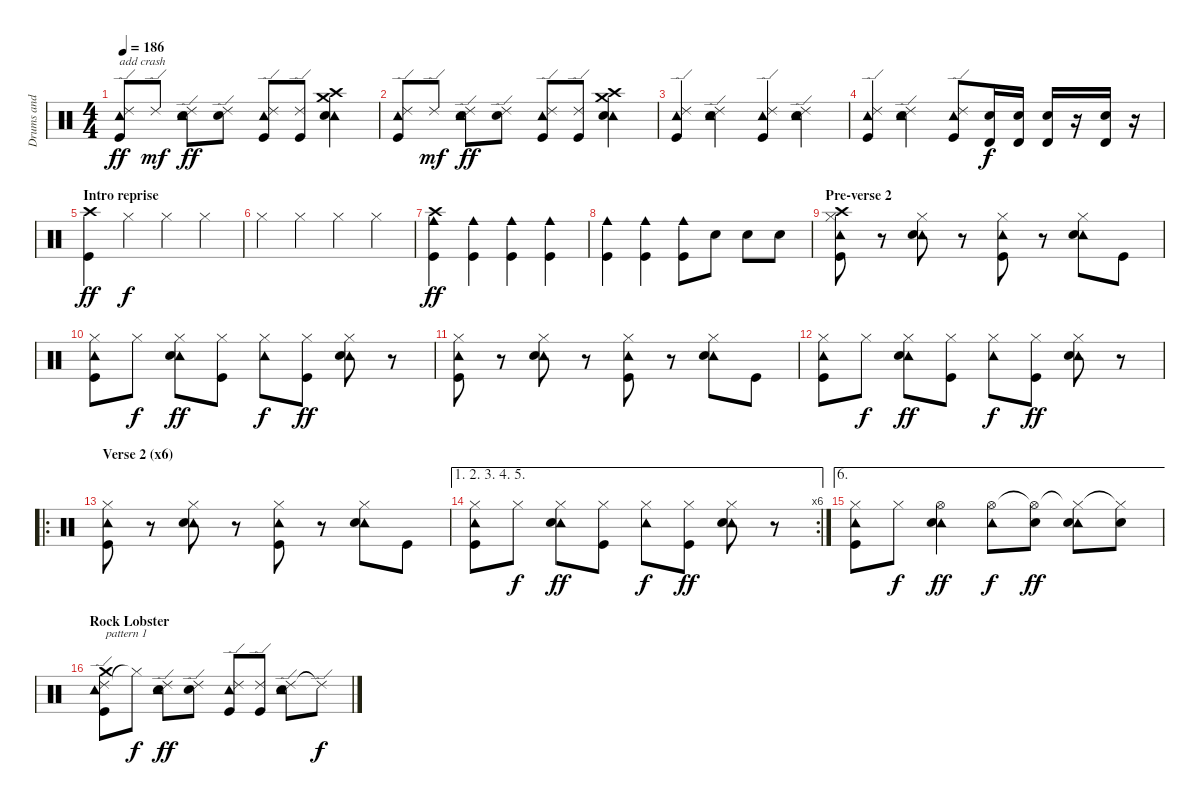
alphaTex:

\track ("Drums and Percs" "Drums and ") {instrument percussion}
\staff {score}
\articulation defaults
\ts (4 4)
\tempo 186
\clef neutral
\ks c
("Ride (edge) 2" "Tambourine (hit)" "Kick (hit)").8{txt "add crash" dy ff} "Ride (edge) 2".8{dy mf} ("Ride (edge) 2" "Tambourine (hit)" "Electric Snare (hit)").8{dy ff} ("Ride (edge) 2" "Electric Snare (hit)").8 ("Ride (edge) 2" "Tambourine (hit)" "Kick (hit)").8 ("Ride (edge) 2" "Kick (hit)").8 ("Crash high (hit)" "Tambourine (hit)" "Crash medium (hit)" "Electric Snare (hit)").4 |
("Ride (edge) 2" "Tambourine (hit)" "Kick (hit)").8 "Ride (edge) 2".8{dy mf} ("Ride (edge) 2" "Tambourine (hit)" "Electric Snare (hit)").8{dy ff} ("Ride (edge) 2" "Electric Snare (hit)").8 ("Ride (edge) 2" "Tambourine (hit)" "Kick (hit)").8 ("Ride (edge) 2" "Kick (hit)").8 ("Crash high (hit)" "Tambourine (hit)" "Crash medium (hit)" "Electric Snare (hit)").4 |
("Ride (edge) 2" "Tambourine (hit)" "Kick (hit)").4 ("Ride (edge) 2" "Tambourine (hit)" "Electric Snare (hit)").4 ("Ride (edge) 2" "Tambourine (hit)" "Kick (hit)").4 ("Ride (edge) 2" "Tambourine (hit)" "Electric Snare (hit)").4 |
("Ride (edge) 2" "Tambourine (hit)" "Kick (hit)").4 ("Ride (edge) 2" "Tambourine (hit)" "Electric Snare (hit)").4 ("Ride (edge) 2" "Tambourine (hit)" "Kick (hit)").8 ("Timbale high (hit)" "Electric Snare (hit)").16{dy f} ("Timbale high (hit)" "Electric Snare (hit)").16 ("Timbale high (hit)" "Electric Snare (hit)").16 r.16 ("Timbale high (hit)" "Electric Snare (hit)").16 r.16 |
\section ("" "Intro reprise")
("Crash high (hit)" "Kick (hit)").4{dy ff} "Hi-Hat (closed)".4{dy f} "Hi-Hat (closed)".4 "Hi-Hat (closed)".4 |
"Hi-Hat (closed)".4 "Hi-Hat (closed)".4 "Hi-Hat (closed)".4 "Hi-Hat (closed)".4 |
("Cowbell medium (hit)" "Crash high (hit)" "Kick (hit)").4{dy ff} ("Cowbell medium (hit)" "Kick (hit)").4 ("Cowbell medium (hit)" "Kick (hit)").4 ("Cowbell medium (hit)" "Kick (hit)").4 |
("Cowbell medium (hit)" "Kick (hit)").4 ("Cowbell medium (hit)" "Kick (hit)").4 ("Cowbell medium (hit)" "Kick (hit)").8 "Electric Snare (hit)".8 "Electric Snare (hit)".8 "Electric Snare (hit)".8 |
\section ("" "Pre-verse 2")
("Hi-Hat (closed)" "Tambourine (hit)" "Crash high (hit)" "Kick (hit)").8 r.8 ("Hi-Hat (closed)" "Tambourine (hit)" "Electric Snare (hit)").8 r.8 ("Hi-Hat (closed)" "Tambourine (hit)" "Kick (hit)").8 r.8 ("Hi-Hat (closed)" "Tambourine (hit)" "Electric Snare (hit)").8 "Kick (hit)".8 |
("Hi-Hat (closed)" "Tambourine (hit)" "Kick (hit)").8 "Hi-Hat (closed)".8{dy f} ("Hi-Hat (closed)" "Tambourine (hit)" "Electric Snare (hit)").8{dy ff} ("Hi-Hat (closed)" "Kick (hit)").8 ("Hi-Hat (closed)" "Tambourine (hit)").8{dy f} ("Hi-Hat (closed)" "Kick (hit)").8{dy ff} ("Hi-Hat (closed)" "Tambourine (hit)" "Electric Snare (hit)").8 r.8 |
("Hi-Hat (closed)" "Tambourine (hit)" "Kick (hit)").8 r.8 ("Hi-Hat (closed)" "Tambourine (hit)" "Electric Snare (hit)").8 r.8 ("Hi-Hat (closed)" "Tambourine (hit)" "Kick (hit)").8 r.8 ("Hi-Hat (closed)" "Tambourine (hit)" "Electric Snare (hit)").8 "Kick (hit)".8 |
("Hi-Hat (closed)" "Tambourine (hit)" "Kick (hit)").8 "Hi-Hat (closed)".8{dy f} ("Hi-Hat (closed)" "Tambourine (hit)" "Electric Snare (hit)").8{dy ff} ("Hi-Hat (closed)" "Kick (hit)").8 ("Hi-Hat (closed)" "Tambourine (hit)").8{dy f} ("Hi-Hat (closed)" "Kick (hit)").8{dy ff} ("Hi-Hat (closed)" "Tambourine (hit)" "Electric Snare (hit)").8 r.8 |
\ro
\section ("" "Verse 2 (x6)")
("Hi-Hat (closed)" "Tambourine (hit)" "Kick (hit)").8 r.8 ("Hi-Hat (closed)" "Tambourine (hit)" "Electric Snare (hit)").8 r.8 ("Hi-Hat (closed)" "Tambourine (hit)" "Kick (hit)").8 r.8 ("Hi-Hat (closed)" "Tambourine (hit)" "Electric Snare (hit)").8 "Kick (hit)".8 |
\ae (1 2 3 4 5)
\rc 6
("Hi-Hat (closed)" "Tambourine (hit)" "Kick (hit)").8 "Hi-Hat (closed)".8{dy f} ("Hi-Hat (closed)" "Tambourine (hit)" "Electric Snare (hit)").8{dy ff} ("Hi-Hat (closed)" "Kick (hit)").8 ("Hi-Hat (closed)" "Tambourine (hit)").8{dy f} ("Hi-Hat (closed)" "Kick (hit)").8{dy ff} ("Hi-Hat (closed)" "Tambourine (hit)" "Electric Snare (hit)").8 r.8 |
\ae 6
("Hi-Hat (closed)" "Tambourine (hit)" "Kick (hit)").8 "Hi-Hat (closed)".8{dy f} ("Hi-Hat (open)" "Tambourine (hit)" "Electric Snare (hit)").4{dy ff} ("Hi-Hat (open)" "Tambourine (hit)").8{dy f} ("Hi-Hat (open)"{t} "Electric Snare (hit)").8{dy ff} ("Hi-Hat (closed)"{t} "Tambourine (hit)" "Electric Snare (hit)").8 ("Hi-Hat (closed)"{t} "Electric Snare (hit)").8 |
\section ("" "Rock Lobster")
("Ride (edge) 2" "Tambourine (hit)" "Crash medium (hit)" "Kick (hit)").8{txt "pattern 1"} "Hi-Hat (closed)"{t}.8{dy f} ("Ride (edge) 2" "Tambourine (hit)" "Electric Snare (hit)").8{dy ff} ("Ride (edge) 2" "Electric Snare (hit)").8 ("Ride (edge) 2" "Tambourine (hit)" "Kick (hit)").8 ("Ride (edge) 2" "Kick (hit)").8 ("Ride (edge) 2" "Tambourine (hit)" "Electric Snare (hit)").8 "Ride (edge) 2"{t}.8{dy f}
